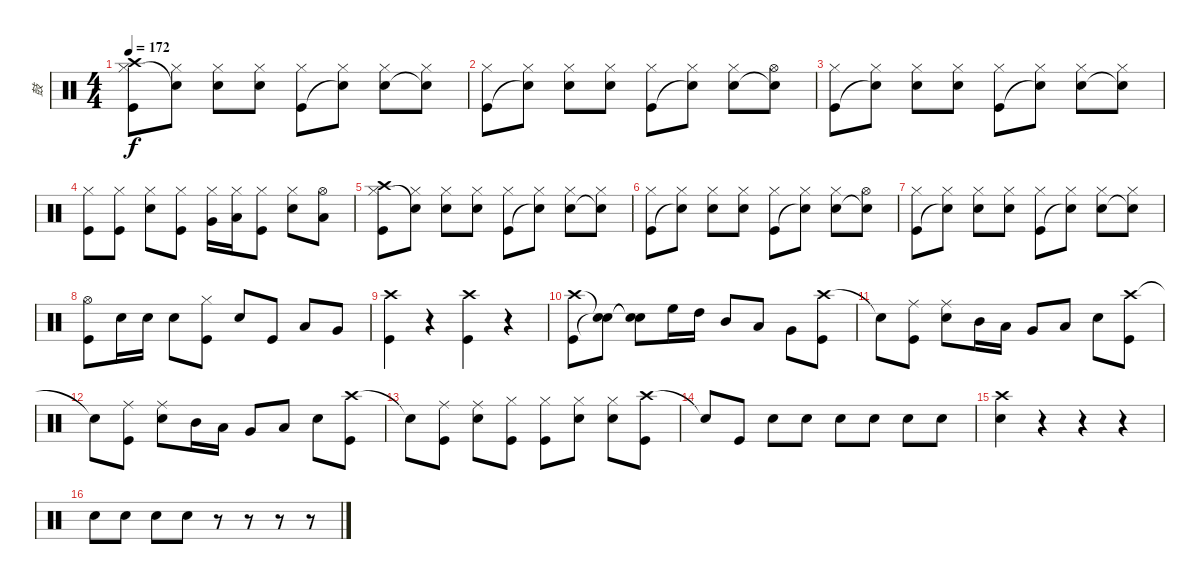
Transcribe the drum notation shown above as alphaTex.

\track ("鼓" "鼓") {instrument percussion}
\staff {score}
\articulation defaults
\ts (4 4)
\tempo 172
\clef neutral
\ks c
("Crash high (hit)" "Hi-Hat (closed)" "Kick (hit)").8{dy f} ("Hi-Hat (closed)" "Snare (hit)"{t}).8 ("Hi-Hat (closed)" "Snare (hit) 2").8 ("Hi-Hat (closed)" "Snare (hit) 2").8 ("Hi-Hat (closed)" "Kick (hit)").8 ("Hi-Hat (closed)" "Snare (hit)"{t}).8 ("Hi-Hat (closed)" "Snare (hit) 2").8 ("Hi-Hat (closed)" "Snare (hit)"{t}).8 |
("Hi-Hat (closed)" "Kick (hit)").8 ("Hi-Hat (closed)" "Snare (hit)"{t}).8 ("Hi-Hat (closed)" "Snare (hit) 2").8 ("Hi-Hat (closed)" "Snare (hit) 2").8 ("Hi-Hat (closed)" "Kick (hit)").8 ("Hi-Hat (closed)" "Snare (hit)"{t}).8 ("Hi-Hat (closed)" "Snare (hit) 2").8 ("Hi-Hat (open)" "Snare (hit)"{t}).8 |
("Hi-Hat (closed)" "Kick (hit)").8 ("Hi-Hat (closed)" "Snare (hit)"{t}).8 ("Hi-Hat (closed)" "Snare (hit) 2").8 ("Hi-Hat (closed)" "Snare (hit) 2").8 ("Hi-Hat (closed)" "Kick (hit)").8 ("Hi-Hat (closed)" "Snare (hit)"{t}).8 ("Hi-Hat (closed)" "Snare (hit) 2").8 ("Hi-Hat (closed)" "Snare (hit)"{t}).8 |
("Hi-Hat (closed)" "Kick (hit)").8 ("Hi-Hat (closed)" "Kick (hit)").8 ("Hi-Hat (closed)" "Snare (hit) 2").8 ("Hi-Hat (closed)" "Kick (hit)").8 ("Hi-Hat (closed)" "Very Low Tom (hit)").16 ("Hi-Hat (closed)" "Low Tom (hit)").16 ("Hi-Hat (closed)" "Kick (hit)").8 ("Hi-Hat (closed)" "Snare (hit) 2").8 ("Hi-Hat (open)" "Low Tom (hit)").8 |
("Crash high (hit)" "Hi-Hat (closed)" "Kick (hit)").8 ("Hi-Hat (closed)" "Snare (hit)"{t}).8 ("Hi-Hat (closed)" "Snare (hit) 2").8 ("Hi-Hat (closed)" "Snare (hit) 2").8 ("Hi-Hat (closed)" "Kick (hit)").8 ("Hi-Hat (closed)" "Snare (hit)"{t}).8 ("Hi-Hat (closed)" "Snare (hit) 2").8 ("Hi-Hat (closed)" "Snare (hit)"{t}).8 |
("Hi-Hat (closed)" "Kick (hit)").8 ("Hi-Hat (closed)" "Snare (hit)"{t}).8 ("Hi-Hat (closed)" "Snare (hit) 2").8 ("Hi-Hat (closed)" "Snare (hit) 2").8 ("Hi-Hat (closed)" "Kick (hit)").8 ("Hi-Hat (closed)" "Snare (hit)"{t}).8 ("Hi-Hat (closed)" "Snare (hit) 2").8 ("Hi-Hat (open)" "Snare (hit)"{t}).8 |
("Hi-Hat (closed)" "Kick (hit)").8 ("Hi-Hat (closed)" "Snare (hit)"{t}).8 ("Hi-Hat (closed)" "Snare (hit) 2").8 ("Hi-Hat (closed)" "Snare (hit) 2").8 ("Hi-Hat (closed)" "Kick (hit)").8 ("Hi-Hat (closed)" "Snare (hit)"{t}).8 ("Hi-Hat (closed)" "Snare (hit) 2").8 ("Hi-Hat (closed)" "Snare (hit)"{t}).8 |
("Hi-Hat (open)" "Kick (hit)").8 "Snare (hit) 2".16 "Snare (hit) 2".16 "Snare (hit) 2".8 ("Hi-Hat (closed)" "Kick (hit)").8 "Snare (hit) 2".8 "Kick (hit)".8 "Low Tom (hit)".8 "Very Low Tom (hit)".8 |
("Crash high (hit)" "Kick (hit)").4 r.4 ("Crash high (hit)" "Kick (hit)").4 r.4 |
("Crash high (hit)" "Kick (hit)").8 ("Snare (hit)"{t} "Snare (hit)"{t}).8 ("Snare (hit)"{t} "Snare (hit)"{t}).8 "High Floor Tom (hit)".16 "High Tom (hit)".16 "Mid Tom (hit)".8 "Low Tom (hit)".8 "Very Low Tom (hit)".8 ("Crash high (hit)" "Kick (hit)").8 |
"Snare (hit)"{t}.8 ("Ride (middle)" "Kick (hit)").8 ("Ride (middle)" "Snare (hit) 2").8 "Mid Tom (hit)".16 "Low Tom (hit)".16 "Very Low Tom (hit)".8 "Low Floor Tom (hit)".8 "Snare (hit) 2".8 ("Crash high (hit)" "Kick (hit)").8 |
"Snare (hit)"{t}.8 ("Ride (middle)" "Kick (hit)").8 ("Ride (middle)" "Snare (hit) 2").8 "Mid Tom (hit)".16 "Low Tom (hit)".16 "Very Low Tom (hit)".8 "Low Floor Tom (hit)".8 "Snare (hit) 2".8 ("Crash high (hit)" "Kick (hit)").8 |
"Snare (hit)"{t}.8 ("Ride (middle)" "Kick (hit)").8 ("Ride (middle)" "Snare (hit) 2").8 ("Hi-Hat (closed)" "Kick (hit)").8 ("Hi-Hat (closed)" "Kick (hit)").8 ("Hi-Hat (closed)" "Snare (hit) 2").8 ("Hi-Hat (closed)" "Snare (hit) 2").8 ("Crash high (hit)" "Kick (hit)").8 |
"Snare (hit)"{t}.8 "Kick (hit)".8 "Snare (hit) 2".8 "Snare (hit) 2".8 "Snare (hit) 2".8 "Snare (hit) 2".8 "Snare (hit) 2".8 "Snare (hit) 2".8 |
("Crash high (hit)" "Snare (hit) 2").4 r.4 r.4 r.4 |
"Snare (hit) 2".8 "Snare (hit) 2".8 "Snare (hit) 2".8 "Snare (hit) 2".8 r.8 r.8 r.8 r.8
